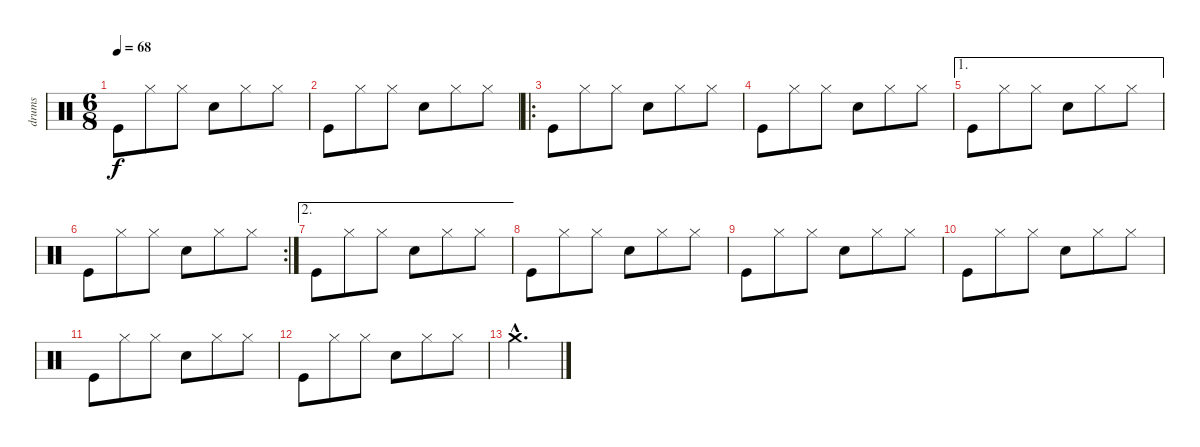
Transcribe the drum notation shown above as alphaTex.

\track ("drums" "drums") {instrument percussion}
\staff {score}
\articulation defaults
\ts (6 8)
\tempo 68
\clef neutral
\ks c "Kick (hit)".8{dy f} "Hi-Hat (closed)".8 "Hi-Hat (closed)".8 "Snare (hit) 2".8 "Hi-Hat (closed)".8 "Hi-Hat (closed)".8
|
"Kick (hit)".8 "Hi-Hat (closed)".8 "Hi-Hat (closed)".8 "Snare (hit) 2".8 "Hi-Hat (closed)".8 "Hi-Hat (closed)".8 |
\ro "Kick (hit)".8 "Hi-Hat (closed)".8 "Hi-Hat (closed)".8 "Snare (hit) 2".8 "Hi-Hat (closed)".8 "Hi-Hat (closed)".8
|
"Kick (hit)".8 "Hi-Hat (closed)".8 "Hi-Hat (closed)".8 "Snare (hit) 2".8 "Hi-Hat (closed)".8 "Hi-Hat (closed)".8 |
\ae 1 "Kick (hit)".8 "Hi-Hat (closed)".8 "Hi-Hat (closed)".8 "Snare (hit) 2".8 "Hi-Hat (closed)".8 "Hi-Hat (closed)".8
|
\rc 2 "Kick (hit)".8 "Hi-Hat (closed)".8 "Hi-Hat (closed)".8 "Snare (hit) 2".8 "Hi-Hat (closed)".8 "Hi-Hat (closed)".8
|
\ae 2 "Kick (hit)".8 "Hi-Hat (closed)".8 "Hi-Hat (closed)".8 "Snare (hit) 2".8 "Hi-Hat (closed)".8 "Hi-Hat (closed)".8
|
"Kick (hit)".8 "Hi-Hat (closed)".8 "Hi-Hat (closed)".8 "Snare (hit) 2".8 "Hi-Hat (closed)".8 "Hi-Hat (closed)".8 |
"Kick (hit)".8 "Hi-Hat (closed)".8 "Hi-Hat (closed)".8 "Snare (hit) 2".8 "Hi-Hat (closed)".8 "Hi-Hat (closed)".8 |
"Kick (hit)".8 "Hi-Hat (closed)".8 "Hi-Hat (closed)".8 "Snare (hit) 2".8 "Hi-Hat (closed)".8 "Hi-Hat (closed)".8 |
"Kick (hit)".8 "Hi-Hat (closed)".8 "Hi-Hat (closed)".8 "Snare (hit) 2".8 "Hi-Hat (closed)".8 "Hi-Hat (closed)".8 |
"Kick (hit)".8 "Hi-Hat (closed)".8 "Hi-Hat (closed)".8 "Snare (hit) 2".8 "Hi-Hat (closed)".8 "Hi-Hat (closed)".8 |
"Crash medium (hit)"{hac}.2{d}
